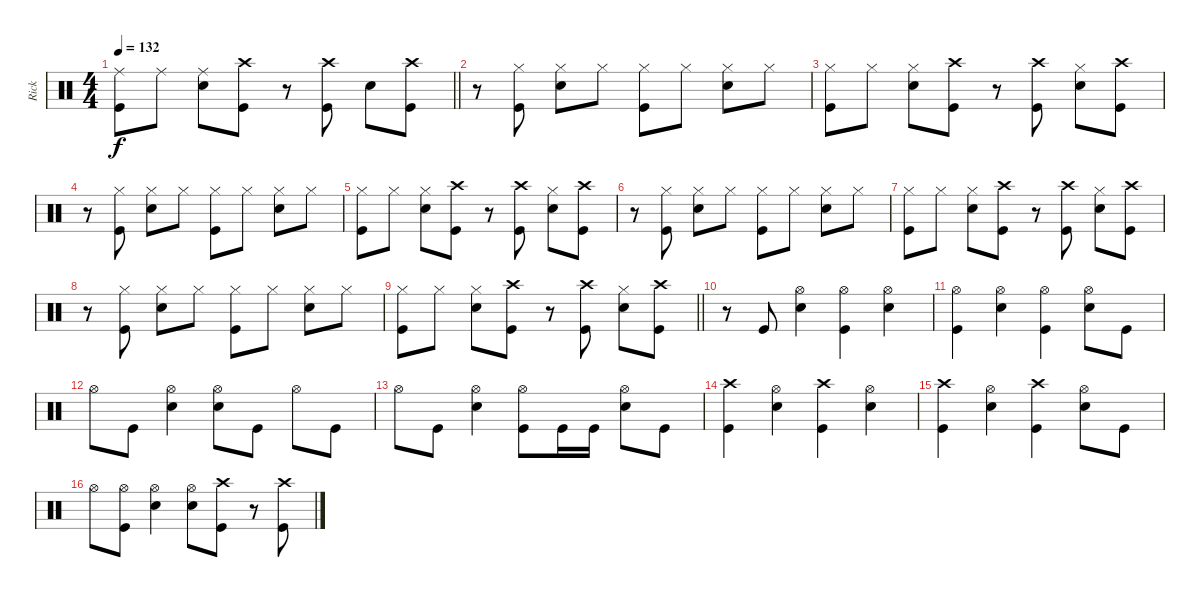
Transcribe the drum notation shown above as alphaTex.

\track ("Rick" "Rick") {instrument percussion}
\staff {score}
\articulation defaults
\ts (4 4)
\tempo 132
\clef neutral
\barLineRight lightlight
\ks aminor
("Ride (middle)" "Kick (hit)").8{dy f} "Ride (middle)".8 ("Ride (middle)" "Snare (hit) 2").8 ("Crash high (hit)" "Kick (hit)").8 r.8 ("Crash high (hit)" "Kick (hit)").8 "Snare (hit) 2".8 ("Crash high (hit)" "Kick (hit)").8 |
r.8 ("Hi-Hat (closed)" "Kick (hit)").8 ("Hi-Hat (closed)" "Snare (hit) 2").8 "Hi-Hat (closed)".8 ("Hi-Hat (closed)" "Kick (hit)").8 "Hi-Hat (closed)".8 ("Hi-Hat (closed)" "Snare (hit) 2").8 "Hi-Hat (closed)".8 |
("Hi-Hat (closed)" "Kick (hit)").8 "Hi-Hat (closed)".8 ("Hi-Hat (closed)" "Snare (hit) 2").8 ("Crash high (hit)" "Kick (hit)").8 r.8 ("Crash high (hit)" "Kick (hit)").8 ("Hi-Hat (closed)" "Snare (hit) 2").8 ("Crash high (hit)" "Kick (hit)").8 |
r.8 ("Hi-Hat (closed)" "Kick (hit)").8 ("Hi-Hat (closed)" "Snare (hit) 2").8 "Hi-Hat (closed)".8 ("Hi-Hat (closed)" "Kick (hit)").8 "Hi-Hat (closed)".8 ("Hi-Hat (closed)" "Snare (hit) 2").8 "Hi-Hat (closed)".8 |
("Hi-Hat (closed)" "Kick (hit)").8 "Hi-Hat (closed)".8 ("Hi-Hat (closed)" "Snare (hit) 2").8 ("Crash high (hit)" "Kick (hit)").8 r.8 ("Crash high (hit)" "Kick (hit)").8 ("Hi-Hat (closed)" "Snare (hit) 2").8 ("Crash high (hit)" "Kick (hit)").8 |
r.8 ("Hi-Hat (closed)" "Kick (hit)").8 ("Hi-Hat (closed)" "Snare (hit) 2").8 "Hi-Hat (closed)".8 ("Hi-Hat (closed)" "Kick (hit)").8 "Hi-Hat (closed)".8 ("Hi-Hat (closed)" "Snare (hit) 2").8 "Hi-Hat (closed)".8 |
("Hi-Hat (closed)" "Kick (hit)").8 "Hi-Hat (closed)".8 ("Hi-Hat (closed)" "Snare (hit) 2").8 ("Crash high (hit)" "Kick (hit)").8 r.8 ("Crash high (hit)" "Kick (hit)").8 ("Hi-Hat (closed)" "Snare (hit) 2").8 ("Crash high (hit)" "Kick (hit)").8 |
r.8 ("Hi-Hat (closed)" "Kick (hit)").8 ("Hi-Hat (closed)" "Snare (hit) 2").8 "Hi-Hat (closed)".8 ("Hi-Hat (closed)" "Kick (hit)").8 "Hi-Hat (closed)".8 ("Hi-Hat (closed)" "Snare (hit) 2").8 "Hi-Hat (closed)".8 |
\barLineRight lightlight
("Hi-Hat (closed)" "Kick (hit)").8 "Hi-Hat (closed)".8 ("Hi-Hat (closed)" "Snare (hit) 2").8 ("Crash high (hit)" "Kick (hit)").8 r.8 ("Crash high (hit)" "Kick (hit)").8 ("Hi-Hat (closed)" "Snare (hit) 2").8 ("Crash high (hit)" "Kick (hit)").8 |
r.8 "Kick (hit)".8 ("Hi-Hat (open)" "Snare (hit) 2").4 ("Hi-Hat (open)" "Kick (hit)").4 ("Hi-Hat (open)" "Snare (hit) 2").4 |
("Hi-Hat (open)" "Kick (hit)").4 ("Hi-Hat (open)" "Snare (hit) 2").4 ("Hi-Hat (open)" "Kick (hit)").4 ("Hi-Hat (open)" "Snare (hit) 2").8 "Kick (hit)".8 |
"Hi-Hat (open)".8 "Kick (hit)".8 ("Hi-Hat (open)" "Snare (hit) 2").4 ("Hi-Hat (open)" "Snare (hit) 2").8 "Kick (hit)".8 "Hi-Hat (open)".8 "Kick (hit)".8 |
"Hi-Hat (open)".8 "Kick (hit)".8 ("Hi-Hat (open)" "Snare (hit) 2").4 ("Hi-Hat (open)" "Kick (hit)").8 "Kick (hit)".16 "Kick (hit)".16 ("Hi-Hat (open)" "Snare (hit) 2").8 "Kick (hit)".8 |
("Crash high (hit)" "Kick (hit)").4 ("Hi-Hat (open)" "Snare (hit) 2").4 ("Crash high (hit)" "Kick (hit)").4 ("Hi-Hat (open)" "Snare (hit) 2").4 |
("Crash high (hit)" "Kick (hit)").4 ("Hi-Hat (open)" "Snare (hit) 2").4 ("Crash high (hit)" "Kick (hit)").4 ("Hi-Hat (open)" "Snare (hit) 2").8 "Kick (hit)".8 |
"Hi-Hat (open)".8 ("Hi-Hat (open)" "Kick (hit)").8 ("Hi-Hat (open)" "Snare (hit) 2").4 ("Hi-Hat (open)" "Snare (hit) 2").8 ("Crash high (hit)" "Kick (hit)").8 r.8 ("Crash high (hit)" "Kick (hit)").8
